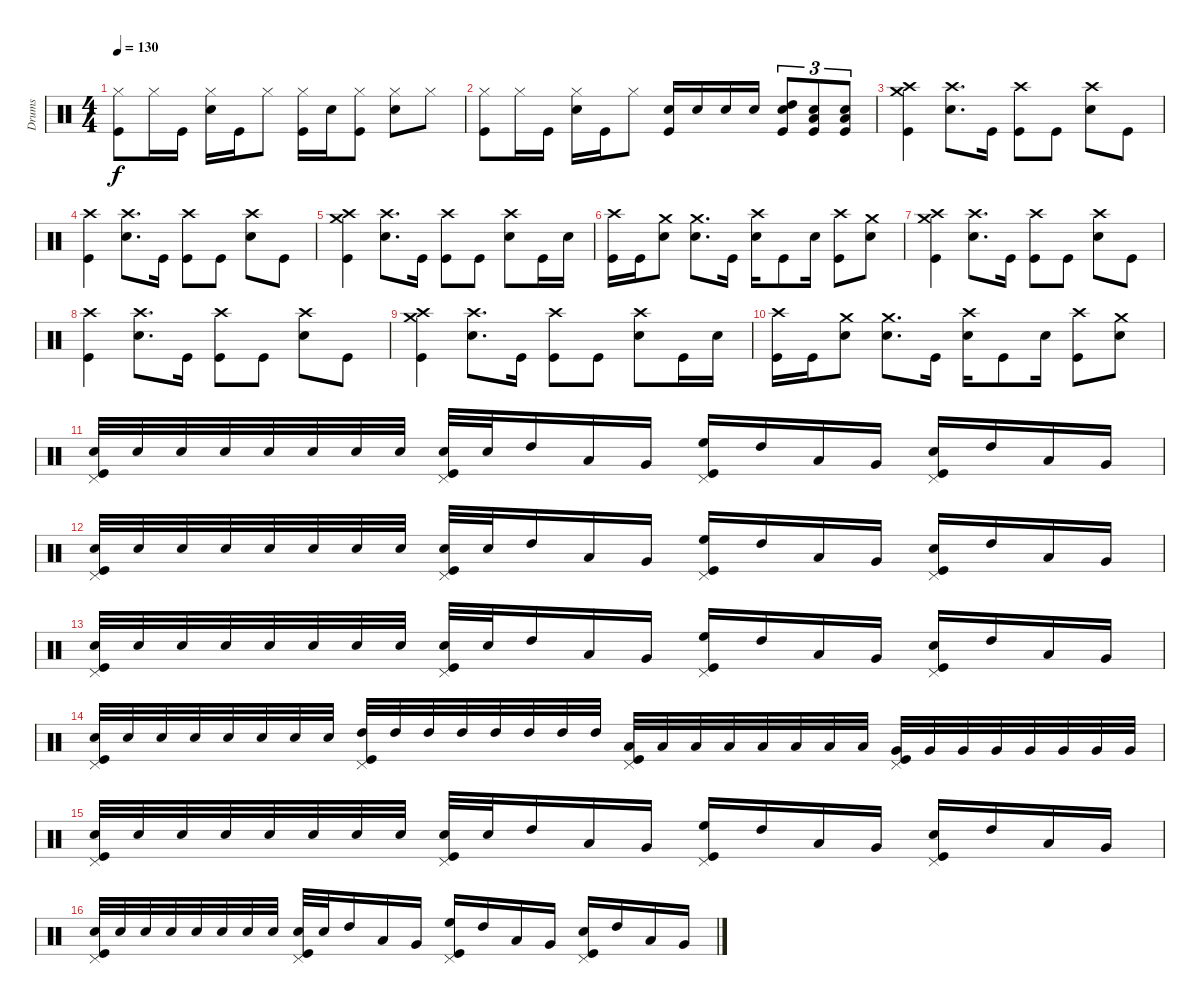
\track ("Drums" "Drums") {instrument percussion}
\staff {score}
\articulation defaults
\ts (4 4)
\tempo 130
\clef neutral
\ks c
("Hi-Hat (closed)" "Kick (hit)").8{dy f} "Hi-Hat (closed)".16 "Kick (hit)".16 ("Hi-Hat (closed)" "Snare (hit) 2").16 "Kick (hit)".16 "Hi-Hat (closed)".8 ("Hi-Hat (closed)" "Kick (hit)").16 "Snare (hit) 2".16 ("Hi-Hat (closed)" "Kick (hit)").8 ("Hi-Hat (closed)" "Snare (hit) 2").8 "Hi-Hat (closed)".8 |
("Hi-Hat (closed)" "Kick (hit)").8 "Hi-Hat (closed)".16 "Kick (hit)".16 ("Hi-Hat (closed)" "Snare (hit) 2").16 "Kick (hit)".16 "Hi-Hat (closed)".8 ("Snare (hit) 2" "Kick (hit)").16 "Snare (hit) 2".16 "Snare (hit) 2".16 "Snare (hit) 2".16 ("High Tom (hit)" "Snare (hit) 2" "Kick (hit)").8{tu (3 2)} ("Low Tom (hit)" "Snare (hit) 2" "Kick (hit)").8{tu (3 2)} ("Low Floor Tom (hit)" "Snare (hit) 2" "Kick (hit)").8{tu (3 2)} |
("Crash high (hit)" "Crash medium (hit)" "Kick (hit)").4 ("Crash high (hit)" "Snare (hit) 2").8{d} "Kick (hit)".16 ("Crash high (hit)" "Kick (hit)").8 "Kick (hit)".8 ("Crash high (hit)" "Snare (hit) 2").8 "Kick (hit)".8 |
("Crash high (hit)" "Kick (hit)").4 ("Crash high (hit)" "Snare (hit) 2").8{d} "Kick (hit)".16 ("Crash high (hit)" "Kick (hit)").8 "Kick (hit)".8 ("Crash high (hit)" "Snare (hit) 2").8 "Kick (hit)".8 |
("Crash high (hit)" "Crash medium (hit)" "Kick (hit)").4 ("Crash high (hit)" "Snare (hit) 2").8{d} "Kick (hit)".16 ("Crash high (hit)" "Kick (hit)").8 "Kick (hit)".8 ("Crash high (hit)" "Snare (hit) 2").8 "Kick (hit)".16 "Snare (hit) 2".16 |
("Crash high (hit)" "Kick (hit)").16 "Kick (hit)".16 ("Crash medium (hit)" "Snare (hit) 2").8 ("Crash medium (hit)" "Snare (hit) 2").8{d} "Kick (hit)".16 ("Crash high (hit)" "Snare (hit) 2").16 "Kick (hit)".8 "Snare (hit) 2".16 ("Crash high (hit)" "Kick (hit)").8 ("Crash medium (hit)" "Snare (hit) 2").8 |
("Crash high (hit)" "Crash medium (hit)" "Kick (hit)").4 ("Crash high (hit)" "Snare (hit) 2").8{d} "Kick (hit)".16 ("Crash high (hit)" "Kick (hit)").8 "Kick (hit)".8 ("Crash high (hit)" "Snare (hit) 2").8 "Kick (hit)".8 |
("Crash high (hit)" "Kick (hit)").4 ("Crash high (hit)" "Snare (hit) 2").8{d} "Kick (hit)".16 ("Crash high (hit)" "Kick (hit)").8 "Kick (hit)".8 ("Crash high (hit)" "Snare (hit) 2").8 "Kick (hit)".8 |
("Crash high (hit)" "Crash medium (hit)" "Kick (hit)").4 ("Crash high (hit)" "Snare (hit) 2").8{d} "Kick (hit)".16 ("Crash high (hit)" "Kick (hit)").8 "Kick (hit)".8 ("Crash high (hit)" "Snare (hit) 2").8 "Kick (hit)".16 "Snare (hit) 2".16 |
("Crash high (hit)" "Kick (hit)").16 "Kick (hit)".16 ("Crash medium (hit)" "Snare (hit) 2").8 ("Crash medium (hit)" "Snare (hit) 2").8{d} "Kick (hit)".16 ("Crash high (hit)" "Snare (hit) 2").16 "Kick (hit)".8 "Snare (hit) 2".16 ("Crash high (hit)" "Kick (hit)").8 ("Crash medium (hit)" "Snare (hit) 2").8 |
("Pedal Hi-Hat (hit)" "Snare (hit) 2" "Kick (hit)").32{volume 7} "Snare (hit) 2".32{volume 13} "Snare (hit) 2".32 "Snare (hit) 2".32 "Snare (hit) 2".32 "Snare (hit) 2".32 "Snare (hit) 2".32 "Snare (hit) 2".32 ("Pedal Hi-Hat (hit)" "Snare (hit) 2" "Kick (hit)").32 "Snare (hit) 2".32 "High Tom (hit)".16 "Low Tom (hit)".16 "Very Low Tom (hit)".16 ("Pedal Hi-Hat (hit)" "High Floor Tom (hit)" "Kick (hit)").16 "High Tom (hit)".16 "Low Tom (hit)".16 "Very Low Tom (hit)".16 ("Pedal Hi-Hat (hit)" "Snare (hit) 2" "Kick (hit)").16 "High Tom (hit)".16 "Low Tom (hit)".16 "Very Low Tom (hit)".16 |
("Pedal Hi-Hat (hit)" "Snare (hit) 2" "Kick (hit)").32{volume 7} "Snare (hit) 2".32{volume 13} "Snare (hit) 2".32 "Snare (hit) 2".32 "Snare (hit) 2".32 "Snare (hit) 2".32 "Snare (hit) 2".32 "Snare (hit) 2".32 ("Pedal Hi-Hat (hit)" "Snare (hit) 2" "Kick (hit)").32 "Snare (hit) 2".32 "High Tom (hit)".16 "Low Tom (hit)".16 "Very Low Tom (hit)".16 ("Pedal Hi-Hat (hit)" "High Floor Tom (hit)" "Kick (hit)").16 "High Tom (hit)".16 "Low Tom (hit)".16 "Very Low Tom (hit)".16 ("Pedal Hi-Hat (hit)" "Snare (hit) 2" "Kick (hit)").16 "High Tom (hit)".16 "Low Tom (hit)".16 "Very Low Tom (hit)".16 |
("Pedal Hi-Hat (hit)" "Snare (hit) 2" "Kick (hit)").32{volume 7} "Snare (hit) 2".32{volume 13} "Snare (hit) 2".32 "Snare (hit) 2".32 "Snare (hit) 2".32 "Snare (hit) 2".32 "Snare (hit) 2".32 "Snare (hit) 2".32 ("Pedal Hi-Hat (hit)" "Snare (hit) 2" "Kick (hit)").32 "Snare (hit) 2".32 "High Tom (hit)".16 "Low Tom (hit)".16 "Very Low Tom (hit)".16 ("Pedal Hi-Hat (hit)" "High Floor Tom (hit)" "Kick (hit)").16 "High Tom (hit)".16 "Low Tom (hit)".16 "Very Low Tom (hit)".16 ("Pedal Hi-Hat (hit)" "Snare (hit) 2" "Kick (hit)").16 "High Tom (hit)".16 "Low Tom (hit)".16 "Very Low Tom (hit)".16 |
("Pedal Hi-Hat (hit)" "Snare (hit) 2" "Kick (hit)").32 "Snare (hit) 2".32 "Snare (hit) 2".32 "Snare (hit) 2".32 "Snare (hit) 2".32 "Snare (hit) 2".32 "Snare (hit) 2".32 "Snare (hit) 2".32 ("Pedal Hi-Hat (hit)" "High Tom (hit)" "Kick (hit)").32 "High Tom (hit)".32 "High Tom (hit)".32 "High Tom (hit)".32 "High Tom (hit)".32 "High Tom (hit)".32 "High Tom (hit)".32 "High Tom (hit)".32 ("Pedal Hi-Hat (hit)" "Low Tom (hit)" "Kick (hit)").32 "Low Tom (hit)".32 "Low Tom (hit)".32 "Low Tom (hit)".32 "Low Tom (hit)".32 "Low Tom (hit)".32 "Low Tom (hit)".32 "Low Tom (hit)".32 ("Pedal Hi-Hat (hit)" "Very Low Tom (hit)" "Kick (hit)").32 "Very Low Tom (hit)".32 "Very Low Tom (hit)".32 "Very Low Tom (hit)".32 "Very Low Tom (hit)".32 "Very Low Tom (hit)".32 "Very Low Tom (hit)".32 "Very Low Tom (hit)".32 |
("Pedal Hi-Hat (hit)" "Snare (hit) 2" "Kick (hit)").32{volume 7} "Snare (hit) 2".32{volume 13} "Snare (hit) 2".32 "Snare (hit) 2".32 "Snare (hit) 2".32 "Snare (hit) 2".32 "Snare (hit) 2".32 "Snare (hit) 2".32 ("Pedal Hi-Hat (hit)" "Snare (hit) 2" "Kick (hit)").32 "Snare (hit) 2".32 "High Tom (hit)".16 "Low Tom (hit)".16 "Very Low Tom (hit)".16 ("Pedal Hi-Hat (hit)" "High Floor Tom (hit)" "Kick (hit)").16 "High Tom (hit)".16 "Low Tom (hit)".16 "Very Low Tom (hit)".16 ("Pedal Hi-Hat (hit)" "Snare (hit) 2" "Kick (hit)").16 "High Tom (hit)".16 "Low Tom (hit)".16 "Very Low Tom (hit)".16 |
("Pedal Hi-Hat (hit)" "Snare (hit) 2" "Kick (hit)").32{volume 7} "Snare (hit) 2".32{volume 13} "Snare (hit) 2".32 "Snare (hit) 2".32 "Snare (hit) 2".32 "Snare (hit) 2".32 "Snare (hit) 2".32 "Snare (hit) 2".32 ("Pedal Hi-Hat (hit)" "Snare (hit) 2" "Kick (hit)").32 "Snare (hit) 2".32 "High Tom (hit)".16 "Low Tom (hit)".16 "Very Low Tom (hit)".16 ("Pedal Hi-Hat (hit)" "High Floor Tom (hit)" "Kick (hit)").16 "High Tom (hit)".16 "Low Tom (hit)".16 "Very Low Tom (hit)".16 ("Pedal Hi-Hat (hit)" "Snare (hit) 2" "Kick (hit)").16 "High Tom (hit)".16 "Low Tom (hit)".16 "Very Low Tom (hit)".16
